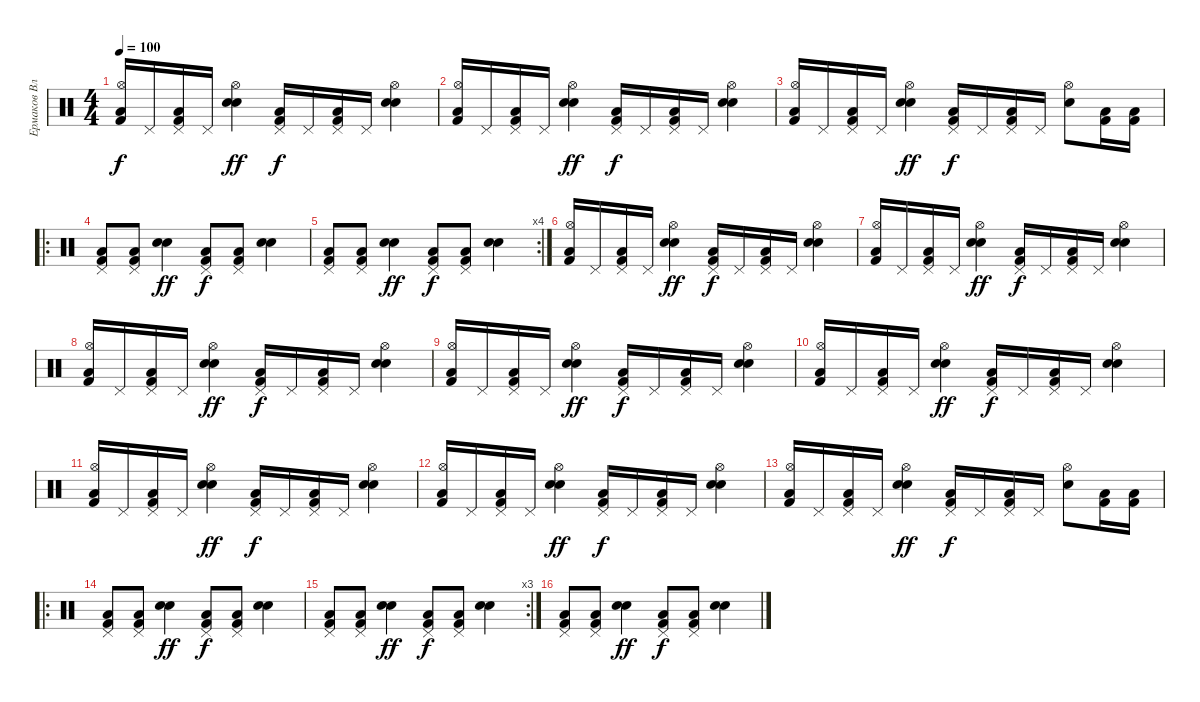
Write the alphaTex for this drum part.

\track ("Ермаков Владимир" "Ермаков Вл") {instrument percussion}
\staff {score}
\articulation defaults
\ts (4 4)
\tempo 100
\clef neutral
\ks c
("Kick (hit) 2" "Hi-Hat (open)" "Low Floor Tom (hit)").16{dy f} "Pedal Hi-Hat (hit)".16 ("Kick (hit) 2" "Pedal Hi-Hat (hit)" "Low Floor Tom (hit)").16 "Pedal Hi-Hat (hit)".16 ("Hand Clap (hit)" "Electric Snare (hit)" "Hi-Hat (open)").4{dy ff} ("Kick (hit) 2" "Pedal Hi-Hat (hit)" "Low Floor Tom (hit)").16{dy f} "Pedal Hi-Hat (hit)".16 ("Kick (hit) 2" "Pedal Hi-Hat (hit)" "Low Floor Tom (hit)").16 "Pedal Hi-Hat (hit)".16 ("Hand Clap (hit)" "Electric Snare (hit)" "Hi-Hat (open)").4 |
("Kick (hit) 2" "Hi-Hat (open)" "Low Floor Tom (hit)").16 "Pedal Hi-Hat (hit)".16 ("Kick (hit) 2" "Pedal Hi-Hat (hit)" "Low Floor Tom (hit)").16 "Pedal Hi-Hat (hit)".16 ("Hand Clap (hit)" "Electric Snare (hit)" "Hi-Hat (open)").4{dy ff} ("Kick (hit) 2" "Pedal Hi-Hat (hit)" "Low Floor Tom (hit)").16{dy f} "Pedal Hi-Hat (hit)".16 ("Kick (hit) 2" "Pedal Hi-Hat (hit)" "Low Floor Tom (hit)").16 "Pedal Hi-Hat (hit)".16 ("Hand Clap (hit)" "Electric Snare (hit)" "Hi-Hat (open)").4 |
("Kick (hit) 2" "Hi-Hat (open)" "Low Floor Tom (hit)").16 "Pedal Hi-Hat (hit)".16 ("Kick (hit) 2" "Pedal Hi-Hat (hit)" "Low Floor Tom (hit)").16 "Pedal Hi-Hat (hit)".16 ("Hand Clap (hit)" "Electric Snare (hit)" "Hi-Hat (open)").4{dy ff} ("Kick (hit) 2" "Pedal Hi-Hat (hit)" "Low Floor Tom (hit)").16{dy f} "Pedal Hi-Hat (hit)".16 ("Kick (hit) 2" "Pedal Hi-Hat (hit)" "Low Floor Tom (hit)").16 "Pedal Hi-Hat (hit)".16 ("Electric Snare (hit)" "Hi-Hat (open)").8 ("Kick (hit) 2" "Low Floor Tom (hit)").16 ("Kick (hit) 2" "Low Floor Tom (hit)").16 |
\ro
("Kick (hit) 2" "Pedal Hi-Hat (hit)" "Low Floor Tom (hit)").8 ("Kick (hit) 2" "Pedal Hi-Hat (hit)" "Low Floor Tom (hit)").8 ("Hand Clap (hit)" "Electric Snare (hit)").4{dy ff} ("Kick (hit) 2" "Pedal Hi-Hat (hit)" "Low Floor Tom (hit)").8{dy f} ("Kick (hit) 2" "Pedal Hi-Hat (hit)" "Low Floor Tom (hit)").8 ("Hand Clap (hit)" "Electric Snare (hit)").4 |
\rc 4
("Kick (hit) 2" "Pedal Hi-Hat (hit)" "Low Floor Tom (hit)").8 ("Kick (hit) 2" "Pedal Hi-Hat (hit)" "Low Floor Tom (hit)").8 ("Hand Clap (hit)" "Electric Snare (hit)").4{dy ff} ("Kick (hit) 2" "Pedal Hi-Hat (hit)" "Low Floor Tom (hit)").8{dy f} ("Kick (hit) 2" "Pedal Hi-Hat (hit)" "Low Floor Tom (hit)").8 ("Hand Clap (hit)" "Electric Snare (hit)").4 |
("Kick (hit) 2" "Hi-Hat (open)" "Low Floor Tom (hit)").16 "Pedal Hi-Hat (hit)".16 ("Kick (hit) 2" "Pedal Hi-Hat (hit)" "Low Floor Tom (hit)").16 "Pedal Hi-Hat (hit)".16 ("Hand Clap (hit)" "Electric Snare (hit)" "Hi-Hat (open)").4{dy ff} ("Kick (hit) 2" "Pedal Hi-Hat (hit)" "Low Floor Tom (hit)").16{dy f} "Pedal Hi-Hat (hit)".16 ("Kick (hit) 2" "Pedal Hi-Hat (hit)" "Low Floor Tom (hit)").16 "Pedal Hi-Hat (hit)".16 ("Hand Clap (hit)" "Electric Snare (hit)" "Hi-Hat (open)").4 |
("Kick (hit) 2" "Hi-Hat (open)" "Low Floor Tom (hit)").16 "Pedal Hi-Hat (hit)".16 ("Kick (hit) 2" "Pedal Hi-Hat (hit)" "Low Floor Tom (hit)").16 "Pedal Hi-Hat (hit)".16 ("Hand Clap (hit)" "Electric Snare (hit)" "Hi-Hat (open)").4{dy ff} ("Kick (hit) 2" "Pedal Hi-Hat (hit)" "Low Floor Tom (hit)").16{dy f} "Pedal Hi-Hat (hit)".16 ("Kick (hit) 2" "Pedal Hi-Hat (hit)" "Low Floor Tom (hit)").16 "Pedal Hi-Hat (hit)".16 ("Hand Clap (hit)" "Electric Snare (hit)" "Hi-Hat (open)").4 |
("Kick (hit) 2" "Hi-Hat (open)" "Low Floor Tom (hit)").16 "Pedal Hi-Hat (hit)".16 ("Kick (hit) 2" "Pedal Hi-Hat (hit)" "Low Floor Tom (hit)").16 "Pedal Hi-Hat (hit)".16 ("Hand Clap (hit)" "Electric Snare (hit)" "Hi-Hat (open)").4{dy ff} ("Kick (hit) 2" "Pedal Hi-Hat (hit)" "Low Floor Tom (hit)").16{dy f} "Pedal Hi-Hat (hit)".16 ("Kick (hit) 2" "Pedal Hi-Hat (hit)" "Low Floor Tom (hit)").16 "Pedal Hi-Hat (hit)".16 ("Hand Clap (hit)" "Electric Snare (hit)" "Hi-Hat (open)").4 |
("Kick (hit) 2" "Hi-Hat (open)" "Low Floor Tom (hit)").16 "Pedal Hi-Hat (hit)".16 ("Kick (hit) 2" "Pedal Hi-Hat (hit)" "Low Floor Tom (hit)").16 "Pedal Hi-Hat (hit)".16 ("Hand Clap (hit)" "Electric Snare (hit)" "Hi-Hat (open)").4{dy ff} ("Kick (hit) 2" "Pedal Hi-Hat (hit)" "Low Floor Tom (hit)").16{dy f} "Pedal Hi-Hat (hit)".16 ("Kick (hit) 2" "Pedal Hi-Hat (hit)" "Low Floor Tom (hit)").16 "Pedal Hi-Hat (hit)".16 ("Hand Clap (hit)" "Electric Snare (hit)" "Hi-Hat (open)").4 |
("Kick (hit) 2" "Hi-Hat (open)" "Low Floor Tom (hit)").16 "Pedal Hi-Hat (hit)".16 ("Kick (hit) 2" "Pedal Hi-Hat (hit)" "Low Floor Tom (hit)").16 "Pedal Hi-Hat (hit)".16 ("Hand Clap (hit)" "Electric Snare (hit)" "Hi-Hat (open)").4{dy ff} ("Kick (hit) 2" "Pedal Hi-Hat (hit)" "Low Floor Tom (hit)").16{dy f} "Pedal Hi-Hat (hit)".16 ("Kick (hit) 2" "Pedal Hi-Hat (hit)" "Low Floor Tom (hit)").16 "Pedal Hi-Hat (hit)".16 ("Hand Clap (hit)" "Electric Snare (hit)" "Hi-Hat (open)").4 |
("Kick (hit) 2" "Hi-Hat (open)" "Low Floor Tom (hit)").16 "Pedal Hi-Hat (hit)".16 ("Kick (hit) 2" "Pedal Hi-Hat (hit)" "Low Floor Tom (hit)").16 "Pedal Hi-Hat (hit)".16 ("Hand Clap (hit)" "Electric Snare (hit)" "Hi-Hat (open)").4{dy ff} ("Kick (hit) 2" "Pedal Hi-Hat (hit)" "Low Floor Tom (hit)").16{dy f} "Pedal Hi-Hat (hit)".16 ("Kick (hit) 2" "Pedal Hi-Hat (hit)" "Low Floor Tom (hit)").16 "Pedal Hi-Hat (hit)".16 ("Hand Clap (hit)" "Electric Snare (hit)" "Hi-Hat (open)").4 |
("Kick (hit) 2" "Hi-Hat (open)" "Low Floor Tom (hit)").16 "Pedal Hi-Hat (hit)".16 ("Kick (hit) 2" "Pedal Hi-Hat (hit)" "Low Floor Tom (hit)").16 "Pedal Hi-Hat (hit)".16 ("Hand Clap (hit)" "Electric Snare (hit)" "Hi-Hat (open)").4{dy ff} ("Kick (hit) 2" "Pedal Hi-Hat (hit)" "Low Floor Tom (hit)").16{dy f} "Pedal Hi-Hat (hit)".16 ("Kick (hit) 2" "Pedal Hi-Hat (hit)" "Low Floor Tom (hit)").16 "Pedal Hi-Hat (hit)".16 ("Hand Clap (hit)" "Electric Snare (hit)" "Hi-Hat (open)").4 |
("Kick (hit) 2" "Hi-Hat (open)" "Low Floor Tom (hit)").16 "Pedal Hi-Hat (hit)".16 ("Kick (hit) 2" "Pedal Hi-Hat (hit)" "Low Floor Tom (hit)").16 "Pedal Hi-Hat (hit)".16 ("Hand Clap (hit)" "Electric Snare (hit)" "Hi-Hat (open)").4{dy ff} ("Kick (hit) 2" "Pedal Hi-Hat (hit)" "Low Floor Tom (hit)").16{dy f} "Pedal Hi-Hat (hit)".16 ("Kick (hit) 2" "Pedal Hi-Hat (hit)" "Low Floor Tom (hit)").16 "Pedal Hi-Hat (hit)".16 ("Electric Snare (hit)" "Hi-Hat (open)").8 ("Kick (hit) 2" "Low Floor Tom (hit)").16 ("Kick (hit) 2" "Low Floor Tom (hit)").16 |
\ro
("Kick (hit) 2" "Pedal Hi-Hat (hit)" "Low Floor Tom (hit)").8 ("Kick (hit) 2" "Pedal Hi-Hat (hit)" "Low Floor Tom (hit)").8 ("Hand Clap (hit)" "Electric Snare (hit)").4{dy ff} ("Kick (hit) 2" "Pedal Hi-Hat (hit)" "Low Floor Tom (hit)").8{dy f} ("Kick (hit) 2" "Pedal Hi-Hat (hit)" "Low Floor Tom (hit)").8 ("Hand Clap (hit)" "Electric Snare (hit)").4 |
\rc 3
("Kick (hit) 2" "Pedal Hi-Hat (hit)" "Low Floor Tom (hit)").8 ("Kick (hit) 2" "Pedal Hi-Hat (hit)" "Low Floor Tom (hit)").8 ("Hand Clap (hit)" "Electric Snare (hit)").4{dy ff} ("Kick (hit) 2" "Pedal Hi-Hat (hit)" "Low Floor Tom (hit)").8{dy f} ("Kick (hit) 2" "Pedal Hi-Hat (hit)" "Low Floor Tom (hit)").8 ("Hand Clap (hit)" "Electric Snare (hit)").4 |
("Kick (hit) 2" "Pedal Hi-Hat (hit)" "Low Floor Tom (hit)").8 ("Kick (hit) 2" "Pedal Hi-Hat (hit)" "Low Floor Tom (hit)").8 ("Hand Clap (hit)" "Electric Snare (hit)").4{dy ff} ("Kick (hit) 2" "Pedal Hi-Hat (hit)" "Low Floor Tom (hit)").8{dy f} ("Kick (hit) 2" "Pedal Hi-Hat (hit)" "Low Floor Tom (hit)").8 ("Hand Clap (hit)" "Electric Snare (hit)").4
